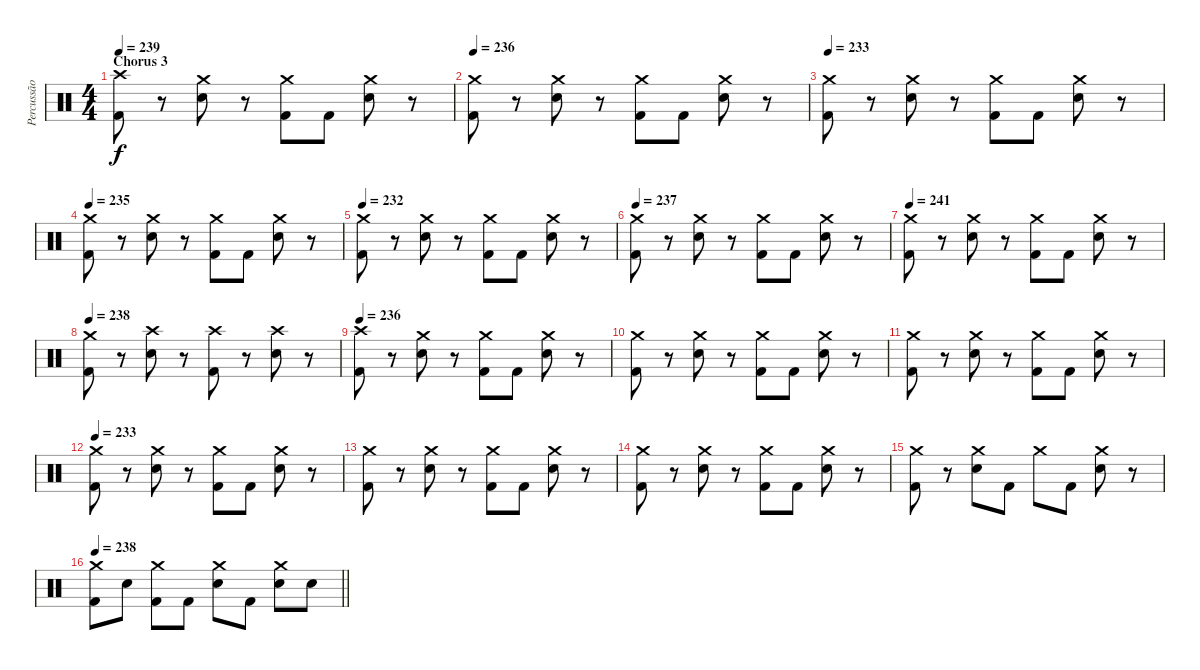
\track ("Percussão" "Percussão") {instrument percussion}
\staff {score}
\articulation defaults
\ts (4 4)
\section ("" "Chorus 3")
\tempo 239
\clef neutral
\ks c
("Crash high (hit)" "Kick (hit) 2").8{dy f} r.8 ("Crash medium (hit)" "Electric Snare (hit)").8 r.8 ("Crash medium (hit)" "Kick (hit) 2").8 "Kick (hit) 2".8 ("Crash medium (hit)" "Electric Snare (hit)").8 r.8 |
\tempo 236
("Crash medium (hit)" "Kick (hit) 2").8 r.8 ("Crash medium (hit)" "Electric Snare (hit)").8 r.8 ("Crash medium (hit)" "Kick (hit) 2").8 "Kick (hit) 2".8 ("Crash medium (hit)" "Electric Snare (hit)").8 r.8 |
\tempo 233
("Crash medium (hit)" "Kick (hit) 2").8 r.8 ("Crash medium (hit)" "Electric Snare (hit)").8 r.8 ("Crash medium (hit)" "Kick (hit) 2").8 "Kick (hit) 2".8 ("Crash medium (hit)" "Electric Snare (hit)").8 r.8 |
\tempo 235
("Crash medium (hit)" "Kick (hit) 2").8 r.8 ("Crash medium (hit)" "Electric Snare (hit)").8 r.8 ("Crash medium (hit)" "Kick (hit) 2").8 "Kick (hit) 2".8 ("Crash medium (hit)" "Electric Snare (hit)").8 r.8 |
\tempo 232
("Crash medium (hit)" "Kick (hit) 2").8 r.8 ("Crash medium (hit)" "Electric Snare (hit)").8 r.8 ("Crash medium (hit)" "Kick (hit) 2").8 "Kick (hit) 2".8 ("Crash medium (hit)" "Electric Snare (hit)").8 r.8 |
\tempo 237
("Crash medium (hit)" "Kick (hit) 2").8 r.8 ("Crash medium (hit)" "Electric Snare (hit)").8 r.8 ("Crash medium (hit)" "Kick (hit) 2").8 "Kick (hit) 2".8 ("Crash medium (hit)" "Electric Snare (hit)").8 r.8 |
\tempo 241
("Crash medium (hit)" "Kick (hit) 2").8 r.8 ("Crash medium (hit)" "Electric Snare (hit)").8 r.8 ("Crash medium (hit)" "Kick (hit) 2").8 "Kick (hit) 2".8 ("Crash medium (hit)" "Electric Snare (hit)").8 r.8 |
\tempo 238
("Crash medium (hit)" "Kick (hit) 2").8 r.8 ("Crash high (hit)" "Electric Snare (hit)").8 r.8 ("Crash high (hit)" "Kick (hit) 2").8 r.8 ("Crash high (hit)" "Electric Snare (hit)").8 r.8 |
\tempo 236
("Crash high (hit)" "Kick (hit) 2").8 r.8 ("Crash medium (hit)" "Electric Snare (hit)").8 r.8 ("Crash medium (hit)" "Kick (hit) 2").8 "Kick (hit) 2".8 ("Crash medium (hit)" "Electric Snare (hit)").8 r.8 |
("Crash medium (hit)" "Kick (hit) 2").8 r.8 ("Crash medium (hit)" "Electric Snare (hit)").8 r.8 ("Crash medium (hit)" "Kick (hit) 2").8 "Kick (hit) 2".8 ("Crash medium (hit)" "Electric Snare (hit)").8 r.8 |
("Crash medium (hit)" "Kick (hit) 2").8 r.8 ("Crash medium (hit)" "Electric Snare (hit)").8 r.8 ("Crash medium (hit)" "Kick (hit) 2").8 "Kick (hit) 2".8 ("Crash medium (hit)" "Electric Snare (hit)").8 r.8 |
\tempo 233
("Crash medium (hit)" "Kick (hit) 2").8 r.8 ("Crash medium (hit)" "Electric Snare (hit)").8 r.8 ("Crash medium (hit)" "Kick (hit) 2").8 "Kick (hit) 2".8 ("Crash medium (hit)" "Electric Snare (hit)").8 r.8 |
("Crash medium (hit)" "Kick (hit) 2").8 r.8 ("Crash medium (hit)" "Electric Snare (hit)").8 r.8 ("Crash medium (hit)" "Kick (hit) 2").8 "Kick (hit) 2".8 ("Crash medium (hit)" "Electric Snare (hit)").8 r.8 |
("Crash medium (hit)" "Kick (hit) 2").8 r.8 ("Crash medium (hit)" "Electric Snare (hit)").8 r.8 ("Crash medium (hit)" "Kick (hit) 2").8 "Kick (hit) 2".8 ("Crash medium (hit)" "Electric Snare (hit)").8 r.8 |
("Crash medium (hit)" "Kick (hit) 2").8 r.8 ("Crash medium (hit)" "Electric Snare (hit)").8 "Kick (hit) 2".8 "Crash medium (hit)".8 "Kick (hit) 2".8 ("Crash medium (hit)" "Electric Snare (hit)").8 r.8 |
\tempo 238
\barLineRight lightlight
("Crash medium (hit)" "Kick (hit) 2").8 "Electric Snare (hit)".8 ("Crash medium (hit)" "Kick (hit) 2").8 "Kick (hit) 2".8 ("Crash medium (hit)" "Electric Snare (hit)").8 "Kick (hit) 2".8 ("Crash medium (hit)" "Electric Snare (hit)").8 "Electric Snare (hit)".8
